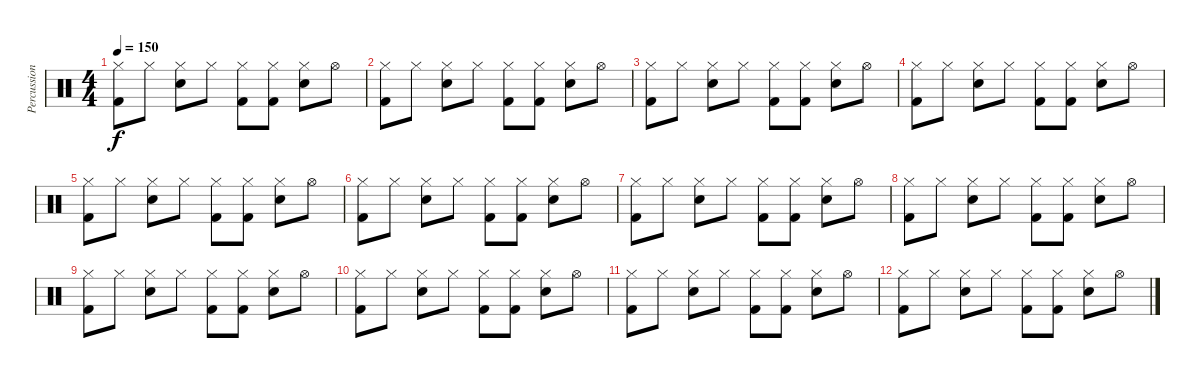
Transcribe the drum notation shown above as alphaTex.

\track ("Percussion" "Percussion") {instrument percussion}
\staff {score}
\articulation defaults
\ts (4 4)
\tempo 150
\clef neutral
\ks c
("Kick (hit) 2" "Hi-Hat (closed)").8{dy f} "Hi-Hat (closed)".8 ("Hi-Hat (closed)" "Snare (hit) 2").8 "Hi-Hat (closed)".8 ("Hi-Hat (closed)" "Kick (hit) 2").8 ("Hi-Hat (closed)" "Kick (hit) 2").8 ("Hi-Hat (closed)" "Snare (hit) 2").8 "Hi-Hat (open)".8 |
("Kick (hit) 2" "Hi-Hat (closed)").8 "Hi-Hat (closed)".8 ("Hi-Hat (closed)" "Snare (hit) 2").8 "Hi-Hat (closed)".8 ("Hi-Hat (closed)" "Kick (hit) 2").8 ("Hi-Hat (closed)" "Kick (hit) 2").8 ("Hi-Hat (closed)" "Snare (hit) 2").8 "Hi-Hat (open)".8 |
("Kick (hit) 2" "Hi-Hat (closed)").8 "Hi-Hat (closed)".8 ("Hi-Hat (closed)" "Snare (hit) 2").8 "Hi-Hat (closed)".8 ("Hi-Hat (closed)" "Kick (hit) 2").8 ("Hi-Hat (closed)" "Kick (hit) 2").8 ("Hi-Hat (closed)" "Snare (hit) 2").8 "Hi-Hat (open)".8 |
("Kick (hit) 2" "Hi-Hat (closed)").8 "Hi-Hat (closed)".8 ("Hi-Hat (closed)" "Snare (hit) 2").8 "Hi-Hat (closed)".8 ("Hi-Hat (closed)" "Kick (hit) 2").8 ("Hi-Hat (closed)" "Kick (hit) 2").8 ("Hi-Hat (closed)" "Snare (hit) 2").8 "Hi-Hat (open)".8 |
("Kick (hit) 2" "Hi-Hat (closed)").8 "Hi-Hat (closed)".8 ("Hi-Hat (closed)" "Snare (hit) 2").8 "Hi-Hat (closed)".8 ("Hi-Hat (closed)" "Kick (hit) 2").8 ("Hi-Hat (closed)" "Kick (hit) 2").8 ("Hi-Hat (closed)" "Snare (hit) 2").8 "Hi-Hat (open)".8 |
("Kick (hit) 2" "Hi-Hat (closed)").8 "Hi-Hat (closed)".8 ("Hi-Hat (closed)" "Snare (hit) 2").8 "Hi-Hat (closed)".8 ("Hi-Hat (closed)" "Kick (hit) 2").8 ("Hi-Hat (closed)" "Kick (hit) 2").8 ("Hi-Hat (closed)" "Snare (hit) 2").8 "Hi-Hat (open)".8 |
("Kick (hit) 2" "Hi-Hat (closed)").8 "Hi-Hat (closed)".8 ("Hi-Hat (closed)" "Snare (hit) 2").8 "Hi-Hat (closed)".8 ("Hi-Hat (closed)" "Kick (hit) 2").8 ("Hi-Hat (closed)" "Kick (hit) 2").8 ("Hi-Hat (closed)" "Snare (hit) 2").8 "Hi-Hat (open)".8 |
("Kick (hit) 2" "Hi-Hat (closed)").8 "Hi-Hat (closed)".8 ("Hi-Hat (closed)" "Snare (hit) 2").8 "Hi-Hat (closed)".8 ("Hi-Hat (closed)" "Kick (hit) 2").8 ("Hi-Hat (closed)" "Kick (hit) 2").8 ("Hi-Hat (closed)" "Snare (hit) 2").8 "Hi-Hat (open)".8 |
("Kick (hit) 2" "Hi-Hat (closed)").8 "Hi-Hat (closed)".8 ("Hi-Hat (closed)" "Snare (hit) 2").8 "Hi-Hat (closed)".8 ("Hi-Hat (closed)" "Kick (hit) 2").8 ("Hi-Hat (closed)" "Kick (hit) 2").8 ("Hi-Hat (closed)" "Snare (hit) 2").8 "Hi-Hat (open)".8 |
("Kick (hit) 2" "Hi-Hat (closed)").8 "Hi-Hat (closed)".8 ("Hi-Hat (closed)" "Snare (hit) 2").8 "Hi-Hat (closed)".8 ("Hi-Hat (closed)" "Kick (hit) 2").8 ("Hi-Hat (closed)" "Kick (hit) 2").8 ("Hi-Hat (closed)" "Snare (hit) 2").8 "Hi-Hat (open)".8 |
("Kick (hit) 2" "Hi-Hat (closed)").8 "Hi-Hat (closed)".8 ("Hi-Hat (closed)" "Snare (hit) 2").8 "Hi-Hat (closed)".8 ("Hi-Hat (closed)" "Kick (hit) 2").8 ("Hi-Hat (closed)" "Kick (hit) 2").8 ("Hi-Hat (closed)" "Snare (hit) 2").8 "Hi-Hat (open)".8 |
("Kick (hit) 2" "Hi-Hat (closed)").8 "Hi-Hat (closed)".8 ("Hi-Hat (closed)" "Snare (hit) 2").8 "Hi-Hat (closed)".8 ("Hi-Hat (closed)" "Kick (hit) 2").8 ("Hi-Hat (closed)" "Kick (hit) 2").8 ("Hi-Hat (closed)" "Snare (hit) 2").8 "Hi-Hat (open)".8
